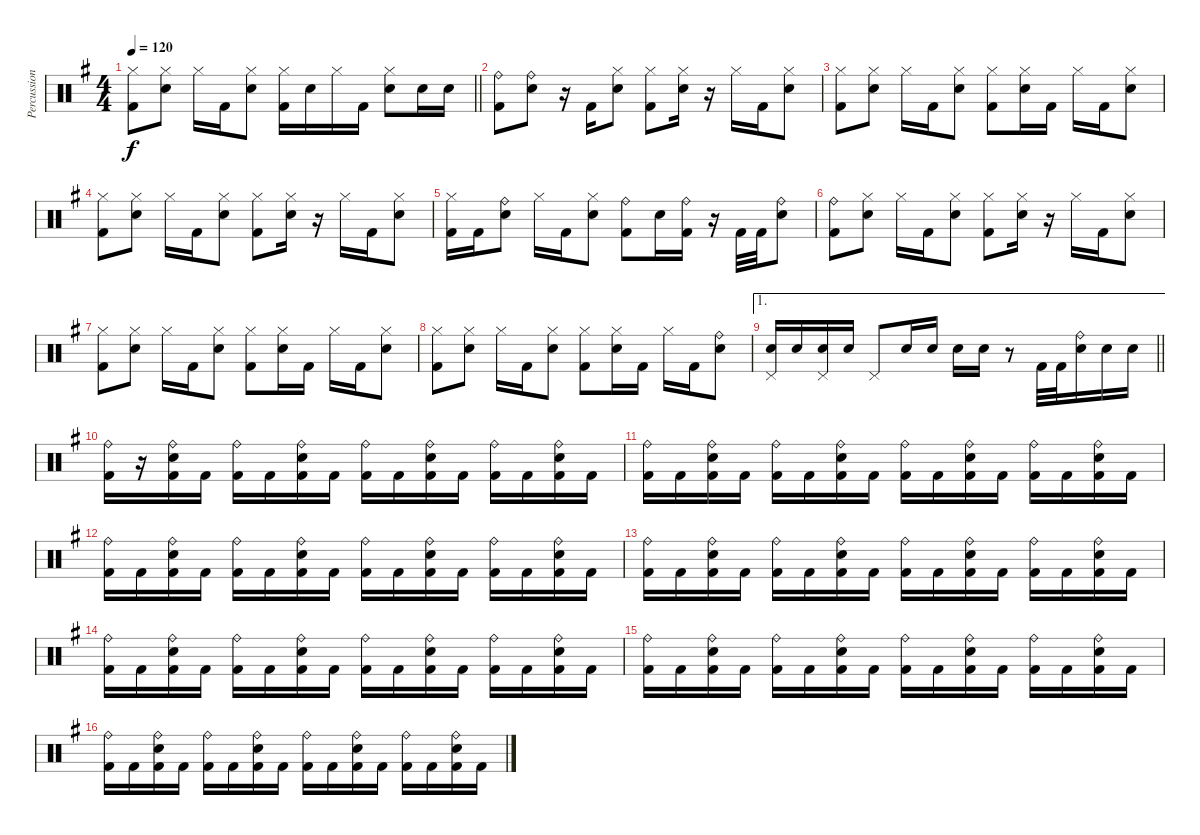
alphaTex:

\track ("Percussion" "Percussion") {instrument percussion}
\staff {score}
\articulation defaults
\ts (4 4)
\tempo 120
\clef neutral
\barLineRight lightlight
\ks eminor
("Hi-Hat (closed)" "Kick (hit) 2").8{dy f} ("Hi-Hat (closed)" "Snare (hit) 2").8 "Hi-Hat (closed)".16 "Kick (hit) 2".16 ("Hi-Hat (closed)" "Snare (hit) 2").8 ("Hi-Hat (closed)" "Kick (hit) 2").16 "Snare (hit) 2".16 "Hi-Hat (closed)".16 "Kick (hit) 2".16 ("Hi-Hat (closed)" "Snare (hit) 2").8 "Snare (hit) 2".16 "Snare (hit) 2".16 |
("Ride (bell)" "Kick (hit) 2").8 ("Ride (bell)" "Snare (hit) 2").8 r.16 "Kick (hit) 2".16 ("Hi-Hat (closed)" "Snare (hit) 2").8 ("Hi-Hat (closed)" "Kick (hit) 2").8 ("Hi-Hat (closed)" "Snare (hit) 2").16 r.16 "Hi-Hat (closed)".16 "Kick (hit) 2".16 ("Hi-Hat (closed)" "Snare (hit) 2").8 |
("Hi-Hat (closed)" "Kick (hit) 2").8 ("Hi-Hat (closed)" "Snare (hit) 2").8 "Hi-Hat (closed)".16 "Kick (hit) 2".16 ("Hi-Hat (closed)" "Snare (hit) 2").8 ("Hi-Hat (closed)" "Kick (hit) 2").8 ("Hi-Hat (closed)" "Snare (hit) 2").16 "Kick (hit) 2".16 "Hi-Hat (closed)".16 "Kick (hit) 2".16 ("Hi-Hat (closed)" "Snare (hit) 2").8 |
("Hi-Hat (closed)" "Kick (hit) 2").8 ("Hi-Hat (closed)" "Snare (hit) 2").8 "Hi-Hat (closed)".16 "Kick (hit) 2".16 ("Hi-Hat (closed)" "Snare (hit) 2").8 ("Hi-Hat (closed)" "Kick (hit) 2").8 ("Hi-Hat (closed)" "Snare (hit) 2").16 r.16 "Hi-Hat (closed)".16 "Kick (hit) 2".16 ("Hi-Hat (closed)" "Snare (hit) 2").8 |
("Hi-Hat (closed)" "Kick (hit) 2").16 "Kick (hit) 2".16 ("Ride (bell)" "Snare (hit) 2").8 "Hi-Hat (closed)".16 "Kick (hit) 2".16 ("Hi-Hat (closed)" "Snare (hit) 2").8 ("Ride (bell)" "Kick (hit) 2").8 "Snare (hit) 2".16 ("Ride (bell)" "Kick (hit) 2").16 r.16 "Kick (hit) 2".32 "Kick (hit) 2".32 ("Ride (bell)" "Snare (hit) 2").8 |
("Ride (bell)" "Kick (hit) 2").8 ("Hi-Hat (closed)" "Snare (hit) 2").8 "Hi-Hat (closed)".16 "Kick (hit) 2".16 ("Hi-Hat (closed)" "Snare (hit) 2").8 ("Hi-Hat (closed)" "Kick (hit) 2").8 ("Hi-Hat (closed)" "Snare (hit) 2").16 r.16 "Hi-Hat (closed)".16 "Kick (hit) 2".16 ("Hi-Hat (closed)" "Snare (hit) 2").8 |
("Hi-Hat (closed)" "Kick (hit) 2").8 ("Hi-Hat (closed)" "Snare (hit) 2").8 "Hi-Hat (closed)".16 "Kick (hit) 2".16 ("Hi-Hat (closed)" "Snare (hit) 2").8 ("Hi-Hat (closed)" "Kick (hit) 2").8 ("Hi-Hat (closed)" "Snare (hit) 2").16 "Kick (hit) 2".16 "Hi-Hat (closed)".16 "Kick (hit) 2".16 ("Hi-Hat (closed)" "Snare (hit) 2").8 |
("Hi-Hat (closed)" "Kick (hit) 2").8 ("Hi-Hat (closed)" "Snare (hit) 2").8 "Hi-Hat (closed)".16 "Kick (hit) 2".16 ("Hi-Hat (closed)" "Snare (hit) 2").8 ("Hi-Hat (closed)" "Kick (hit) 2").8 ("Hi-Hat (closed)" "Snare (hit) 2").16 "Kick (hit) 2".16 "Hi-Hat (closed)".16 "Kick (hit) 2".16 ("Ride (bell)" "Snare (hit) 2").8 |
\ae 1
\barLineRight lightlight
("Pedal Hi-Hat (hit)" "Snare (hit) 2").16 "Snare (hit) 2".16 ("Pedal Hi-Hat (hit)" "Snare (hit) 2").16 "Snare (hit) 2".16 "Pedal Hi-Hat (hit)".8 "Snare (hit) 2".16 "Snare (hit) 2".16 "Snare (hit) 2".16 "Snare (hit) 2".16 r.8 "Kick (hit) 2".32 "Kick (hit) 2".32 ("Ride (bell)" "Snare (hit) 2").16 "Snare (hit) 2".16 "Snare (hit) 2".16 |
("Ride (bell)" "Kick (hit) 2").16 r.16 ("Ride (bell)" "Snare (hit) 2" "Kick (hit) 2").16 "Kick (hit) 2".16 ("Ride (bell)" "Kick (hit) 2").16 "Kick (hit) 2".16 ("Ride (bell)" "Snare (hit) 2" "Kick (hit) 2").16 "Kick (hit) 2".16 ("Ride (bell)" "Kick (hit) 2").16 "Kick (hit) 2".16 ("Ride (bell)" "Snare (hit) 2" "Kick (hit) 2").16 "Kick (hit) 2".16 ("Ride (bell)" "Kick (hit) 2").16 "Kick (hit) 2".16 ("Ride (bell)" "Snare (hit) 2" "Kick (hit) 2").16 "Kick (hit) 2".16 |
("Ride (bell)" "Kick (hit) 2").16 "Kick (hit) 2".16 ("Ride (bell)" "Snare (hit) 2" "Kick (hit) 2").16 "Kick (hit) 2".16 ("Ride (bell)" "Kick (hit) 2").16 "Kick (hit) 2".16 ("Ride (bell)" "Snare (hit) 2" "Kick (hit) 2").16 "Kick (hit) 2".16 ("Ride (bell)" "Kick (hit) 2").16 "Kick (hit) 2".16 ("Ride (bell)" "Snare (hit) 2" "Kick (hit) 2").16 "Kick (hit) 2".16 ("Ride (bell)" "Kick (hit) 2").16 "Kick (hit) 2".16 ("Ride (bell)" "Snare (hit) 2" "Kick (hit) 2").16 "Kick (hit) 2".16 |
("Ride (bell)" "Kick (hit) 2").16 "Kick (hit) 2".16 ("Ride (bell)" "Snare (hit) 2" "Kick (hit) 2").16 "Kick (hit) 2".16 ("Ride (bell)" "Kick (hit) 2").16 "Kick (hit) 2".16 ("Ride (bell)" "Snare (hit) 2" "Kick (hit) 2").16 "Kick (hit) 2".16 ("Ride (bell)" "Kick (hit) 2").16 "Kick (hit) 2".16 ("Ride (bell)" "Snare (hit) 2" "Kick (hit) 2").16 "Kick (hit) 2".16 ("Ride (bell)" "Kick (hit) 2").16 "Kick (hit) 2".16 ("Ride (bell)" "Snare (hit) 2" "Kick (hit) 2").16 "Kick (hit) 2".16 |
("Ride (bell)" "Kick (hit) 2").16 "Kick (hit) 2".16 ("Ride (bell)" "Snare (hit) 2" "Kick (hit) 2").16 "Kick (hit) 2".16 ("Ride (bell)" "Kick (hit) 2").16 "Kick (hit) 2".16 ("Ride (bell)" "Snare (hit) 2" "Kick (hit) 2").16 "Kick (hit) 2".16 ("Ride (bell)" "Kick (hit) 2").16 "Kick (hit) 2".16 ("Ride (bell)" "Snare (hit) 2" "Kick (hit) 2").16 "Kick (hit) 2".16 ("Ride (bell)" "Kick (hit) 2").16 "Kick (hit) 2".16 ("Ride (bell)" "Snare (hit) 2" "Kick (hit) 2").16 "Kick (hit) 2".16 |
("Ride (bell)" "Kick (hit) 2").16 "Kick (hit) 2".16 ("Ride (bell)" "Snare (hit) 2" "Kick (hit) 2").16 "Kick (hit) 2".16 ("Ride (bell)" "Kick (hit) 2").16 "Kick (hit) 2".16 ("Ride (bell)" "Snare (hit) 2" "Kick (hit) 2").16 "Kick (hit) 2".16 ("Ride (bell)" "Kick (hit) 2").16 "Kick (hit) 2".16 ("Ride (bell)" "Snare (hit) 2" "Kick (hit) 2").16 "Kick (hit) 2".16 ("Ride (bell)" "Kick (hit) 2").16 "Kick (hit) 2".16 ("Ride (bell)" "Snare (hit) 2" "Kick (hit) 2").16 "Kick (hit) 2".16 |
("Ride (bell)" "Kick (hit) 2").16 "Kick (hit) 2".16 ("Ride (bell)" "Snare (hit) 2" "Kick (hit) 2").16 "Kick (hit) 2".16 ("Ride (bell)" "Kick (hit) 2").16 "Kick (hit) 2".16 ("Ride (bell)" "Snare (hit) 2" "Kick (hit) 2").16 "Kick (hit) 2".16 ("Ride (bell)" "Kick (hit) 2").16 "Kick (hit) 2".16 ("Ride (bell)" "Snare (hit) 2" "Kick (hit) 2").16 "Kick (hit) 2".16 ("Ride (bell)" "Kick (hit) 2").16 "Kick (hit) 2".16 ("Ride (bell)" "Snare (hit) 2" "Kick (hit) 2").16 "Kick (hit) 2".16 |
("Ride (bell)" "Kick (hit) 2").16 "Kick (hit) 2".16 ("Ride (bell)" "Snare (hit) 2" "Kick (hit) 2").16 "Kick (hit) 2".16 ("Ride (bell)" "Kick (hit) 2").16 "Kick (hit) 2".16 ("Ride (bell)" "Snare (hit) 2" "Kick (hit) 2").16 "Kick (hit) 2".16 ("Ride (bell)" "Kick (hit) 2").16 "Kick (hit) 2".16 ("Ride (bell)" "Snare (hit) 2" "Kick (hit) 2").16 "Kick (hit) 2".16 ("Ride (bell)" "Kick (hit) 2").16 "Kick (hit) 2".16 ("Ride (bell)" "Snare (hit) 2" "Kick (hit) 2").16 "Kick (hit) 2".16
